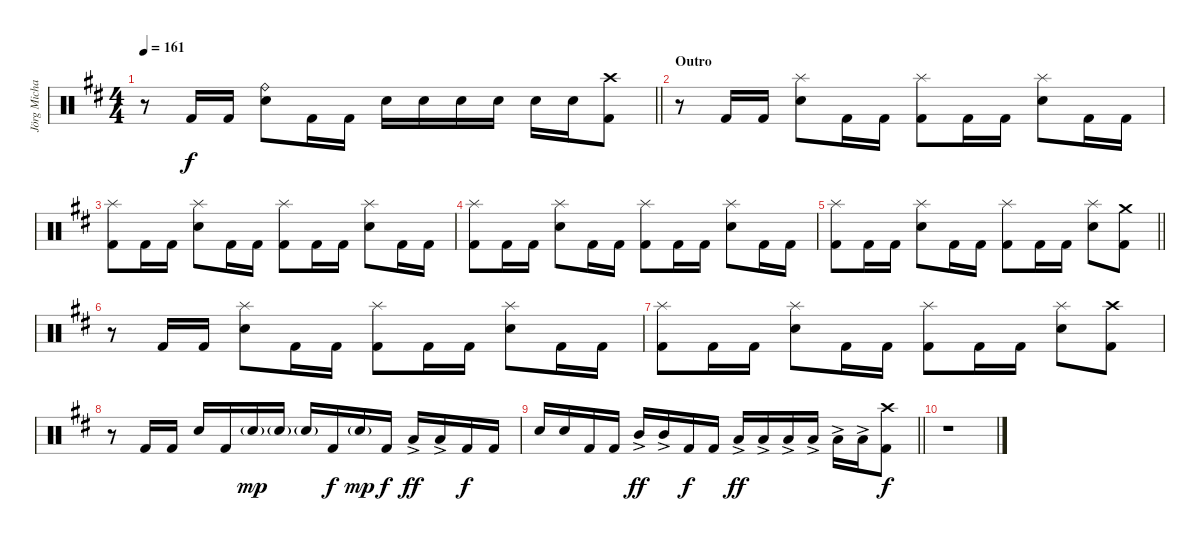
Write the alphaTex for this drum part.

\track ("Jörg Michael" "Jörg Micha") {instrument percussion}
\staff {score}
\articulation defaults
\ts (4 4)
\tempo 161
\clef neutral
\barLineRight lightlight
\ks bminor
r.8{dy f} "Kick (hit) 2".16 "Kick (hit) 2".16 ("Ride (bell)" "Snare (hit) 2").8 "Kick (hit) 2".16 "Kick (hit) 2".16 "Snare (hit) 2".16 "Snare (hit) 2".16 "Snare (hit) 2".16 "Snare (hit) 2".16 "Snare (hit) 2".16 "Snare (hit) 2".16 ("Crash high (hit)" "Kick (hit) 2").8 |
\section ("" "Outro")
r.8 "Kick (hit) 2".16 "Kick (hit) 2".16 ("Splash (hit)" "Snare (hit) 2").8 "Kick (hit) 2".16 "Kick (hit) 2".16 ("Splash (hit)" "Kick (hit) 2").8 "Kick (hit) 2".16 "Kick (hit) 2".16 ("Splash (hit)" "Snare (hit) 2").8 "Kick (hit) 2".16 "Kick (hit) 2".16 |
("Splash (hit)" "Kick (hit) 2").8 "Kick (hit) 2".16 "Kick (hit) 2".16 ("Splash (hit)" "Snare (hit) 2").8 "Kick (hit) 2".16 "Kick (hit) 2".16 ("Splash (hit)" "Kick (hit) 2").8 "Kick (hit) 2".16 "Kick (hit) 2".16 ("Splash (hit)" "Snare (hit) 2").8 "Kick (hit) 2".16 "Kick (hit) 2".16 |
("Splash (hit)" "Kick (hit) 2").8 "Kick (hit) 2".16 "Kick (hit) 2".16 ("Splash (hit)" "Snare (hit) 2").8 "Kick (hit) 2".16 "Kick (hit) 2".16 ("Splash (hit)" "Kick (hit) 2").8 "Kick (hit) 2".16 "Kick (hit) 2".16 ("Splash (hit)" "Snare (hit) 2").8 "Kick (hit) 2".16 "Kick (hit) 2".16 |
\barLineRight lightlight
("Splash (hit)" "Kick (hit) 2").8 "Kick (hit) 2".16 "Kick (hit) 2".16 ("Splash (hit)" "Snare (hit) 2").8 "Kick (hit) 2".16 "Kick (hit) 2".16 ("Splash (hit)" "Kick (hit) 2").8 "Kick (hit) 2".16 "Kick (hit) 2".16 ("Splash (hit)" "Snare (hit) 2").8 ("Crash medium (hit)" "Kick (hit) 2").8 |
r.8 "Kick (hit) 2".16 "Kick (hit) 2".16 ("Splash (hit)" "Snare (hit) 2").8 "Kick (hit) 2".16 "Kick (hit) 2".16 ("Splash (hit)" "Kick (hit) 2").8 "Kick (hit) 2".16 "Kick (hit) 2".16 ("Splash (hit)" "Snare (hit) 2").8 "Kick (hit) 2".16 "Kick (hit) 2".16 |
("Splash (hit)" "Kick (hit) 2").8 "Kick (hit) 2".16 "Kick (hit) 2".16 ("Splash (hit)" "Snare (hit) 2").8 "Kick (hit) 2".16 "Kick (hit) 2".16 ("Splash (hit)" "Kick (hit) 2").8 "Kick (hit) 2".16 "Kick (hit) 2".16 ("Splash (hit)" "Snare (hit) 2").8 ("Crash high (hit)" "Kick (hit) 2").8 |
r.8 "Kick (hit) 2".16 "Kick (hit) 2".16 "Snare (hit) 2".16 "Kick (hit) 2".16 "Snare (hit) 2"{g}.16{dy mp} "Snare (hit) 2"{g}.16 "Snare (hit) 2"{g}.16 "Kick (hit) 2".16{dy f} "Snare (hit) 2"{g}.16{dy mp} "Kick (hit) 2".16{dy f} "Low Tom (hit)"{ac}.16{dy ff} "Low Tom (hit)"{ac}.16 "Kick (hit) 2".16{dy f} "Kick (hit) 2".16 |
\barLineRight lightlight "Snare (hit) 2".16 "Snare (hit) 2".16 "Kick (hit) 2".16 "Kick (hit) 2".16 "Mid Tom (hit)"{ac}.16{dy ff} "Mid Tom (hit)"{ac}.16 "Kick (hit) 2".16{dy f} "Kick (hit) 2".16 "Low Tom (hit)"{ac}.16{dy ff} "Low Tom (hit)"{ac}.16 "Low Tom (hit)"{ac}.16 "Low Tom (hit)"{ac}.16 "Low Tom (hit)"{ac}.16 "Low Tom (hit)"{ac}.16
("Crash high (hit)" "Kick (hit) 2").8{dy f} |
r.1
